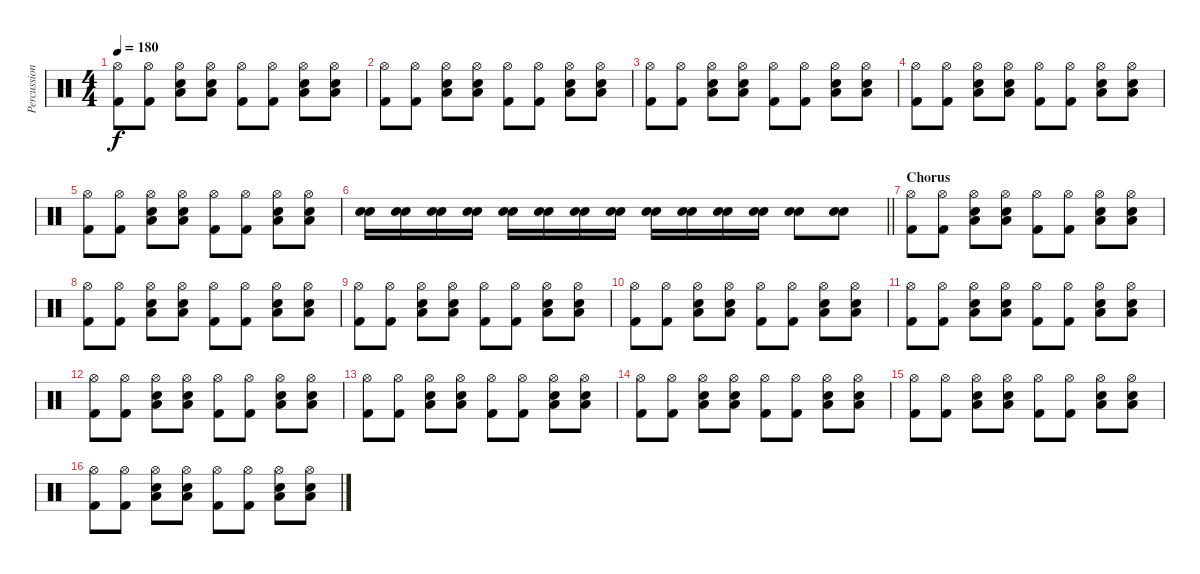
\track ("Percussioni" "Percussion") {instrument percussion}
\staff {score}
\articulation defaults
\ts (4 4)
\tempo 180
\clef neutral
\ks c
("Hi-Hat (open)" "Kick (hit) 2").8{dy f} ("Hi-Hat (open)" "Kick (hit) 2").8 ("Hi-Hat (open)" "Electric Snare (hit)" "Low Floor Tom (hit)").8 ("Hi-Hat (open)" "Electric Snare (hit)" "Low Floor Tom (hit)").8 ("Hi-Hat (open)" "Kick (hit) 2").8 ("Hi-Hat (open)" "Kick (hit) 2").8 ("Hi-Hat (open)" "Electric Snare (hit)" "Low Floor Tom (hit)").8 ("Hi-Hat (open)" "Electric Snare (hit)" "Low Floor Tom (hit)").8 |
("Hi-Hat (open)" "Kick (hit) 2").8 ("Hi-Hat (open)" "Kick (hit) 2").8 ("Hi-Hat (open)" "Electric Snare (hit)" "Low Floor Tom (hit)").8 ("Hi-Hat (open)" "Electric Snare (hit)" "Low Floor Tom (hit)").8 ("Hi-Hat (open)" "Kick (hit) 2").8 ("Hi-Hat (open)" "Kick (hit) 2").8 ("Hi-Hat (open)" "Electric Snare (hit)" "Low Floor Tom (hit)").8 ("Hi-Hat (open)" "Electric Snare (hit)" "Low Floor Tom (hit)").8 |
("Hi-Hat (open)" "Kick (hit) 2").8 ("Hi-Hat (open)" "Kick (hit) 2").8 ("Hi-Hat (open)" "Electric Snare (hit)" "Low Floor Tom (hit)").8 ("Hi-Hat (open)" "Electric Snare (hit)" "Low Floor Tom (hit)").8 ("Hi-Hat (open)" "Kick (hit) 2").8 ("Hi-Hat (open)" "Kick (hit) 2").8 ("Hi-Hat (open)" "Electric Snare (hit)" "Low Floor Tom (hit)").8 ("Hi-Hat (open)" "Electric Snare (hit)" "Low Floor Tom (hit)").8 |
("Hi-Hat (open)" "Kick (hit) 2").8 ("Hi-Hat (open)" "Kick (hit) 2").8 ("Hi-Hat (open)" "Electric Snare (hit)" "Low Floor Tom (hit)").8 ("Hi-Hat (open)" "Electric Snare (hit)" "Low Floor Tom (hit)").8 ("Hi-Hat (open)" "Kick (hit) 2").8 ("Hi-Hat (open)" "Kick (hit) 2").8 ("Hi-Hat (open)" "Electric Snare (hit)" "Low Floor Tom (hit)").8 ("Hi-Hat (open)" "Electric Snare (hit)" "Low Floor Tom (hit)").8 |
("Hi-Hat (open)" "Kick (hit) 2").8 ("Hi-Hat (open)" "Kick (hit) 2").8 ("Hi-Hat (open)" "Electric Snare (hit)" "Low Floor Tom (hit)").8 ("Hi-Hat (open)" "Electric Snare (hit)" "Low Floor Tom (hit)").8 ("Hi-Hat (open)" "Kick (hit) 2").8 ("Hi-Hat (open)" "Kick (hit) 2").8 ("Hi-Hat (open)" "Electric Snare (hit)" "Low Floor Tom (hit)").8 ("Hi-Hat (open)" "Electric Snare (hit)" "Low Floor Tom (hit)").8 |
\barLineRight lightlight
("Electric Snare (hit)" "Electric Snare (hit)").16 ("Electric Snare (hit)" "Electric Snare (hit)").16 ("Electric Snare (hit)" "Electric Snare (hit)").16 ("Electric Snare (hit)" "Electric Snare (hit)").16 ("Electric Snare (hit)" "Electric Snare (hit)").16 ("Electric Snare (hit)" "Electric Snare (hit)").16 ("Electric Snare (hit)" "Electric Snare (hit)").16 ("Electric Snare (hit)" "Electric Snare (hit)").16 ("Electric Snare (hit)" "Electric Snare (hit)").16 ("Electric Snare (hit)" "Electric Snare (hit)").16 ("Electric Snare (hit)" "Electric Snare (hit)").16 ("Electric Snare (hit)" "Electric Snare (hit)").16 ("Electric Snare (hit)" "Electric Snare (hit)").8 ("Electric Snare (hit)" "Electric Snare (hit)").8 |
\section ("" "Chorus")
("Hi-Hat (open)" "Kick (hit) 2").8 ("Hi-Hat (open)" "Kick (hit) 2").8 ("Hi-Hat (open)" "Electric Snare (hit)" "Low Floor Tom (hit)").8 ("Hi-Hat (open)" "Electric Snare (hit)" "Low Floor Tom (hit)").8 ("Hi-Hat (open)" "Kick (hit) 2").8 ("Hi-Hat (open)" "Kick (hit) 2").8 ("Hi-Hat (open)" "Electric Snare (hit)" "Low Floor Tom (hit)").8 ("Hi-Hat (open)" "Electric Snare (hit)" "Low Floor Tom (hit)").8 |
("Hi-Hat (open)" "Kick (hit) 2").8 ("Hi-Hat (open)" "Kick (hit) 2").8 ("Hi-Hat (open)" "Electric Snare (hit)" "Low Floor Tom (hit)").8 ("Hi-Hat (open)" "Electric Snare (hit)" "Low Floor Tom (hit)").8 ("Hi-Hat (open)" "Kick (hit) 2").8 ("Hi-Hat (open)" "Kick (hit) 2").8 ("Hi-Hat (open)" "Electric Snare (hit)" "Low Floor Tom (hit)").8 ("Hi-Hat (open)" "Electric Snare (hit)" "Low Floor Tom (hit)").8 |
("Hi-Hat (open)" "Kick (hit) 2").8 ("Hi-Hat (open)" "Kick (hit) 2").8 ("Hi-Hat (open)" "Electric Snare (hit)" "Low Floor Tom (hit)").8 ("Hi-Hat (open)" "Electric Snare (hit)" "Low Floor Tom (hit)").8 ("Hi-Hat (open)" "Kick (hit) 2").8 ("Hi-Hat (open)" "Kick (hit) 2").8 ("Hi-Hat (open)" "Electric Snare (hit)" "Low Floor Tom (hit)").8 ("Hi-Hat (open)" "Electric Snare (hit)" "Low Floor Tom (hit)").8 |
("Hi-Hat (open)" "Kick (hit) 2").8 ("Hi-Hat (open)" "Kick (hit) 2").8 ("Hi-Hat (open)" "Electric Snare (hit)" "Low Floor Tom (hit)").8 ("Hi-Hat (open)" "Electric Snare (hit)" "Low Floor Tom (hit)").8 ("Hi-Hat (open)" "Kick (hit) 2").8 ("Hi-Hat (open)" "Kick (hit) 2").8 ("Hi-Hat (open)" "Electric Snare (hit)" "Low Floor Tom (hit)").8 ("Hi-Hat (open)" "Electric Snare (hit)" "Low Floor Tom (hit)").8 |
("Hi-Hat (open)" "Kick (hit) 2").8 ("Hi-Hat (open)" "Kick (hit) 2").8 ("Hi-Hat (open)" "Electric Snare (hit)" "Low Floor Tom (hit)").8 ("Hi-Hat (open)" "Electric Snare (hit)" "Low Floor Tom (hit)").8 ("Hi-Hat (open)" "Kick (hit) 2").8 ("Hi-Hat (open)" "Kick (hit) 2").8 ("Hi-Hat (open)" "Electric Snare (hit)" "Low Floor Tom (hit)").8 ("Hi-Hat (open)" "Electric Snare (hit)" "Low Floor Tom (hit)").8 |
("Hi-Hat (open)" "Kick (hit) 2").8 ("Hi-Hat (open)" "Kick (hit) 2").8 ("Hi-Hat (open)" "Electric Snare (hit)" "Low Floor Tom (hit)").8 ("Hi-Hat (open)" "Electric Snare (hit)" "Low Floor Tom (hit)").8 ("Hi-Hat (open)" "Kick (hit) 2").8 ("Hi-Hat (open)" "Kick (hit) 2").8 ("Hi-Hat (open)" "Electric Snare (hit)" "Low Floor Tom (hit)").8 ("Hi-Hat (open)" "Electric Snare (hit)" "Low Floor Tom (hit)").8 |
("Hi-Hat (open)" "Kick (hit) 2").8 ("Hi-Hat (open)" "Kick (hit) 2").8 ("Hi-Hat (open)" "Electric Snare (hit)" "Low Floor Tom (hit)").8 ("Hi-Hat (open)" "Electric Snare (hit)" "Low Floor Tom (hit)").8 ("Hi-Hat (open)" "Kick (hit) 2").8 ("Hi-Hat (open)" "Kick (hit) 2").8 ("Hi-Hat (open)" "Electric Snare (hit)" "Low Floor Tom (hit)").8 ("Hi-Hat (open)" "Electric Snare (hit)" "Low Floor Tom (hit)").8 |
("Hi-Hat (open)" "Kick (hit) 2").8 ("Hi-Hat (open)" "Kick (hit) 2").8 ("Hi-Hat (open)" "Electric Snare (hit)" "Low Floor Tom (hit)").8 ("Hi-Hat (open)" "Electric Snare (hit)" "Low Floor Tom (hit)").8 ("Hi-Hat (open)" "Kick (hit) 2").8 ("Hi-Hat (open)" "Kick (hit) 2").8 ("Hi-Hat (open)" "Electric Snare (hit)" "Low Floor Tom (hit)").8 ("Hi-Hat (open)" "Electric Snare (hit)" "Low Floor Tom (hit)").8 |
("Hi-Hat (open)" "Kick (hit) 2").8 ("Hi-Hat (open)" "Kick (hit) 2").8 ("Hi-Hat (open)" "Electric Snare (hit)" "Low Floor Tom (hit)").8 ("Hi-Hat (open)" "Electric Snare (hit)" "Low Floor Tom (hit)").8 ("Hi-Hat (open)" "Kick (hit) 2").8 ("Hi-Hat (open)" "Kick (hit) 2").8 ("Hi-Hat (open)" "Electric Snare (hit)" "Low Floor Tom (hit)").8 ("Hi-Hat (open)" "Electric Snare (hit)" "Low Floor Tom (hit)").8 |
("Hi-Hat (open)" "Kick (hit) 2").8 ("Hi-Hat (open)" "Kick (hit) 2").8 ("Hi-Hat (open)" "Electric Snare (hit)" "Low Floor Tom (hit)").8 ("Hi-Hat (open)" "Electric Snare (hit)" "Low Floor Tom (hit)").8 ("Hi-Hat (open)" "Kick (hit) 2").8 ("Hi-Hat (open)" "Kick (hit) 2").8 ("Hi-Hat (open)" "Electric Snare (hit)" "Low Floor Tom (hit)").8 ("Hi-Hat (open)" "Electric Snare (hit)" "Low Floor Tom (hit)").8
